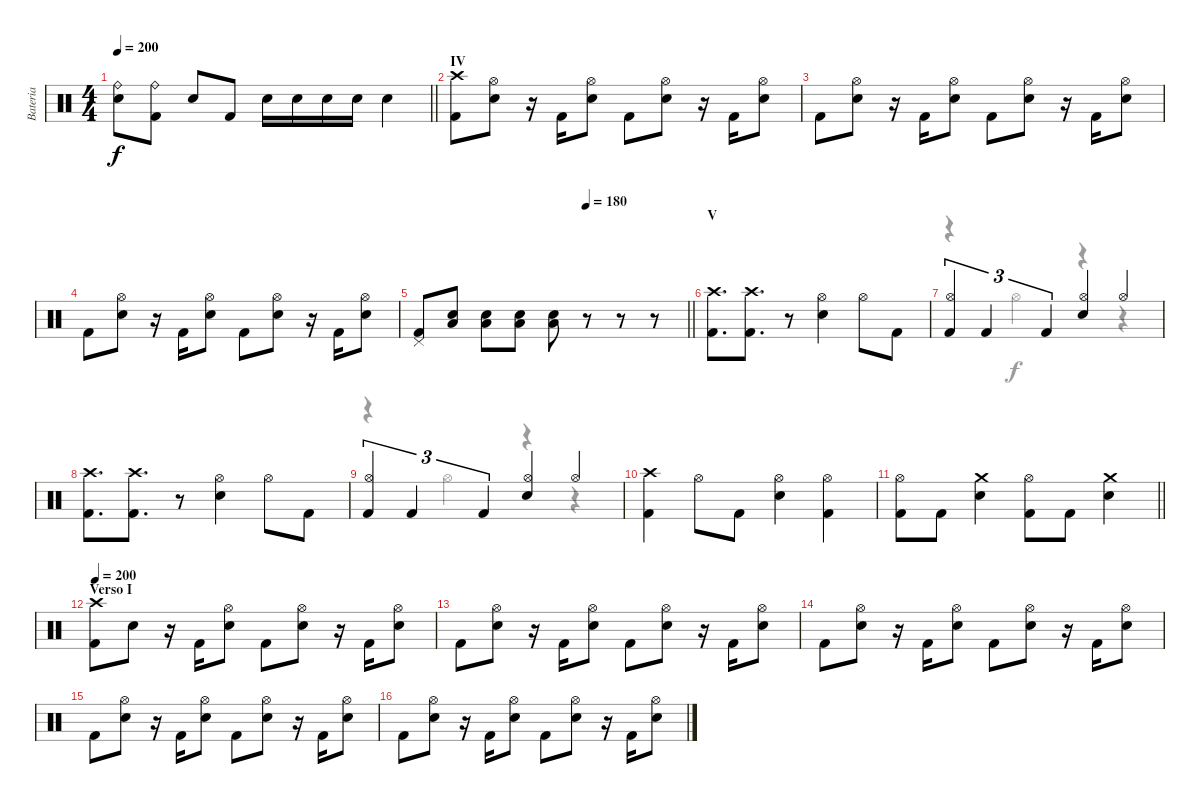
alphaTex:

\track ("Bateria" "Bateria") {instrument percussion}
\staff {score}
\articulation defaults
\voice
\ts (4 4)
\tempo 200
\clef neutral
\barLineRight lightlight
\ks c
("Electric Snare (hit)" "Ride (bell)").8{dy f} ("Kick (hit) 2" "Ride (bell)").8 "Electric Snare (hit)".8 "Kick (hit) 2".8 "Electric Snare (hit)".16 "Electric Snare (hit)".16 "Electric Snare (hit)".16 "Electric Snare (hit)".16 "Electric Snare (hit)".4 |
\section ("" "IV")
("Kick (hit) 2" "Crash high (hit)").8 ("Electric Snare (hit)" "Hi-Hat (open)").8 r.16 "Kick (hit) 2".16 ("Electric Snare (hit)" "Hi-Hat (open)").8 "Kick (hit) 2".8 ("Electric Snare (hit)" "Hi-Hat (open)").8 r.16 "Kick (hit) 2".16 ("Electric Snare (hit)" "Hi-Hat (open)").8 |
"Kick (hit) 2".8 ("Electric Snare (hit)" "Hi-Hat (open)").8 r.16 "Kick (hit) 2".16 ("Electric Snare (hit)" "Hi-Hat (open)").8 "Kick (hit) 2".8 ("Electric Snare (hit)" "Hi-Hat (open)").8 r.16 "Kick (hit) 2".16 ("Electric Snare (hit)" "Hi-Hat (open)").8 |
"Kick (hit) 2".8 ("Electric Snare (hit)" "Hi-Hat (open)").8 r.16 "Kick (hit) 2".16 ("Electric Snare (hit)" "Hi-Hat (open)").8 "Kick (hit) 2".8 ("Electric Snare (hit)" "Hi-Hat (open)").8 r.16 "Kick (hit) 2".16 ("Electric Snare (hit)" "Hi-Hat (open)").8 |
\tempo (180 0.625)
\barLineRight lightlight
("Kick (hit) 2" "Pedal Hi-Hat (hit)").8 ("Electric Snare (hit)" "Low Tom (hit)").8 ("Electric Snare (hit)" "Low Tom (hit)").8 ("Electric Snare (hit)" "Low Tom (hit)").8 ("Electric Snare (hit)" "Low Tom (hit)").8 r.8 r.8 r.8 |
\section ("" "V")
("Kick (hit) 2" "Crash high (hit)").8{d} ("Kick (hit) 2" "Crash high (hit)").8{d} r.8 ("Electric Snare (hit)" "Hi-Hat (open)").4 "Hi-Hat (open)".8 "Kick (hit) 2".8 |
("Kick (hit) 2" "Hi-Hat (open)").4{tu (3 2)} "Kick (hit) 2".4{tu (3 2)} "Kick (hit) 2".4{tu (3 2)} ("Electric Snare (hit)" "Hi-Hat (open)").4 "Hi-Hat (open)".4 |
("Kick (hit) 2" "Crash high (hit)").8{d} ("Kick (hit) 2" "Crash high (hit)").8{d} r.8 ("Electric Snare (hit)" "Hi-Hat (open)").4 "Hi-Hat (open)".8 "Kick (hit) 2".8 |
("Kick (hit) 2" "Hi-Hat (open)").4{tu (3 2)} "Kick (hit) 2".4{tu (3 2)} "Kick (hit) 2".4{tu (3 2)} ("Electric Snare (hit)" "Hi-Hat (open)").4 "Hi-Hat (open)".4 |
("Kick (hit) 2" "Crash high (hit)").4 "Hi-Hat (open)".8 "Kick (hit) 2".8 ("Electric Snare (hit)" "Hi-Hat (open)").4 ("Kick (hit) 2" "Hi-Hat (open)").4 |
\barLineRight lightlight
("Kick (hit) 2" "Hi-Hat (open)").8 "Kick (hit) 2".8 ("Electric Snare (hit)" "Crash medium (hit)").4 ("Kick (hit) 2" "Hi-Hat (open)").8 "Kick (hit) 2".8 ("Electric Snare (hit)" "Crash medium (hit)").4 |
\section ("" "Verso I")
\tempo 200
("Kick (hit) 2" "Crash high (hit)").8 "Electric Snare (hit)".8 r.16 "Kick (hit) 2".16 ("Electric Snare (hit)" "Hi-Hat (open)").8 "Kick (hit) 2".8 ("Electric Snare (hit)" "Hi-Hat (open)").8 r.16 "Kick (hit) 2".16 ("Electric Snare (hit)" "Hi-Hat (open)").8 |
"Kick (hit) 2".8 ("Electric Snare (hit)" "Hi-Hat (open)").8 r.16 "Kick (hit) 2".16 ("Electric Snare (hit)" "Hi-Hat (open)").8 "Kick (hit) 2".8 ("Electric Snare (hit)" "Hi-Hat (open)").8 r.16 "Kick (hit) 2".16 ("Electric Snare (hit)" "Hi-Hat (open)").8 |
"Kick (hit) 2".8 ("Electric Snare (hit)" "Hi-Hat (open)").8 r.16 "Kick (hit) 2".16 ("Electric Snare (hit)" "Hi-Hat (open)").8 "Kick (hit) 2".8 ("Electric Snare (hit)" "Hi-Hat (open)").8 r.16 "Kick (hit) 2".16 ("Electric Snare (hit)" "Hi-Hat (open)").8 |
"Kick (hit) 2".8 ("Electric Snare (hit)" "Hi-Hat (open)").8 r.16 "Kick (hit) 2".16 ("Electric Snare (hit)" "Hi-Hat (open)").8 "Kick (hit) 2".8 ("Electric Snare (hit)" "Hi-Hat (open)").8 r.16 "Kick (hit) 2".16 ("Electric Snare (hit)" "Hi-Hat (open)").8 |
"Kick (hit) 2".8 ("Electric Snare (hit)" "Hi-Hat (open)").8 r.16 "Kick (hit) 2".16 ("Electric Snare (hit)" "Hi-Hat (open)").8 "Kick (hit) 2".8 ("Electric Snare (hit)" "Hi-Hat (open)").8 r.16 "Kick (hit) 2".16 ("Electric Snare (hit)" "Hi-Hat (open)").8
\voice
\clef neutral
\ottava regular
\simile none
\barLineRight lightlight
\ks c
|
|
|
|
\barLineRight lightlight
|
|
r.4 "Hi-Hat (open)".4 r.4 r.4 |
|
r.4 "Hi-Hat (open)".4 r.4 r.4 |
|
\barLineRight lightlight
|
|
|
|
|
